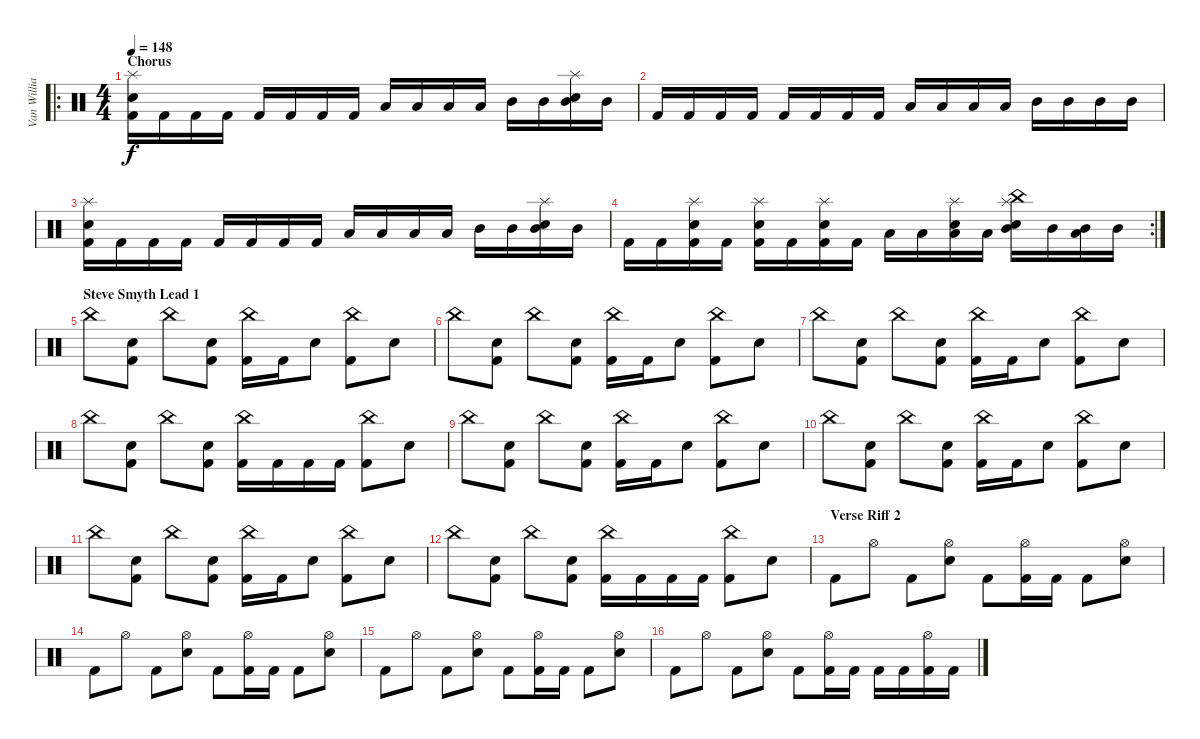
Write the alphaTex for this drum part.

\track ("Van Williams" "Van Willia") {instrument percussion}
\staff {score}
\articulation defaults
\ro
\ts (4 4)
\section ("" "Chorus")
\tempo 148
\clef neutral
\ks c
("Splash (hit)" "Electric Snare (hit)" "Kick (hit) 2").16{dy f} "Kick (hit) 2".16 "Kick (hit) 2".16 "Kick (hit) 2".16 "Kick (hit) 2".16 "Kick (hit) 2".16 "Kick (hit) 2".16 "Kick (hit) 2".16 "Low Tom (hit)".16 "Low Tom (hit)".16 "Low Tom (hit)".16 "Low Tom (hit)".16 "Mid Tom (hit)".16 "Mid Tom (hit)".16 ("Splash (hit)" "Electric Snare (hit)" "Mid Tom (hit)").16 "Mid Tom (hit)".16 |
"Kick (hit) 2".16 "Kick (hit) 2".16 "Kick (hit) 2".16 "Kick (hit) 2".16 "Kick (hit) 2".16 "Kick (hit) 2".16 "Kick (hit) 2".16 "Kick (hit) 2".16 "Low Tom (hit)".16 "Low Tom (hit)".16 "Low Tom (hit)".16 "Low Tom (hit)".16 "Mid Tom (hit)".16 "Mid Tom (hit)".16 "Mid Tom (hit)".16 "Mid Tom (hit)".16 |
("Splash (hit)" "Electric Snare (hit)" "Kick (hit) 2").16 "Kick (hit) 2".16 "Kick (hit) 2".16 "Kick (hit) 2".16 "Kick (hit) 2".16 "Kick (hit) 2".16 "Kick (hit) 2".16 "Kick (hit) 2".16 "Low Tom (hit)".16 "Low Tom (hit)".16 "Low Tom (hit)".16 "Low Tom (hit)".16 "Mid Tom (hit)".16 "Mid Tom (hit)".16 ("Splash (hit)" "Electric Snare (hit)" "Mid Tom (hit)").16 "Mid Tom (hit)".16 |
\rc 2 "Kick (hit) 2".16 "Kick (hit) 2".16
("Splash (hit)" "Electric Snare (hit)" "Kick (hit) 2").16 "Kick (hit) 2".16 ("Splash (hit)" "Electric Snare (hit)" "Kick (hit) 2").16 "Kick (hit) 2".16 ("Splash (hit)" "Electric Snare (hit)" "Kick (hit) 2").16 "Kick (hit) 2".16 "Low Tom (hit)".16 "Low Tom (hit)".16 ("Splash (hit)" "Electric Snare (hit)" "Low Tom (hit)").16 "Low Tom (hit)".16 ("Splash (hit)" "China (hit)" "Electric Snare (hit)" "Mid Tom (hit)").16 "Mid Tom (hit)".16 ("Low Tom (hit)" "Mid Tom (hit)").16 "Mid Tom (hit)".16 |
\section ("" "Steve Smyth Lead 1")
"China (hit)".8 ("Electric Snare (hit)" "Kick (hit) 2").8 "China (hit)".8 ("Electric Snare (hit)" "Kick (hit) 2").8 ("China (hit)" "Kick (hit) 2").16 "Kick (hit) 2".16 "Electric Snare (hit)".8 ("China (hit)" "Kick (hit) 2").8 "Electric Snare (hit)".8 |
"China (hit)".8 ("Electric Snare (hit)" "Kick (hit) 2").8 "China (hit)".8 ("Electric Snare (hit)" "Kick (hit) 2").8 ("China (hit)" "Kick (hit) 2").16 "Kick (hit) 2".16 "Electric Snare (hit)".8 ("China (hit)" "Kick (hit) 2").8 "Electric Snare (hit)".8 |
"China (hit)".8 ("Electric Snare (hit)" "Kick (hit) 2").8 "China (hit)".8 ("Electric Snare (hit)" "Kick (hit) 2").8 ("China (hit)" "Kick (hit) 2").16 "Kick (hit) 2".16 "Electric Snare (hit)".8 ("China (hit)" "Kick (hit) 2").8 "Electric Snare (hit)".8 |
"China (hit)".8 ("Electric Snare (hit)" "Kick (hit) 2").8 "China (hit)".8 ("Electric Snare (hit)" "Kick (hit) 2").8 ("China (hit)" "Kick (hit) 2").16 "Kick (hit) 2".16 "Kick (hit) 2".16 "Kick (hit) 2".16 ("China (hit)" "Kick (hit) 2").8 "Electric Snare (hit)".8 |
"China (hit)".8 ("Electric Snare (hit)" "Kick (hit) 2").8 "China (hit)".8 ("Electric Snare (hit)" "Kick (hit) 2").8 ("China (hit)" "Kick (hit) 2").16 "Kick (hit) 2".16 "Electric Snare (hit)".8 ("China (hit)" "Kick (hit) 2").8 "Electric Snare (hit)".8 |
"China (hit)".8 ("Electric Snare (hit)" "Kick (hit) 2").8 "China (hit)".8 ("Electric Snare (hit)" "Kick (hit) 2").8 ("China (hit)" "Kick (hit) 2").16 "Kick (hit) 2".16 "Electric Snare (hit)".8 ("China (hit)" "Kick (hit) 2").8 "Electric Snare (hit)".8 |
"China (hit)".8 ("Electric Snare (hit)" "Kick (hit) 2").8 "China (hit)".8 ("Electric Snare (hit)" "Kick (hit) 2").8 ("China (hit)" "Kick (hit) 2").16 "Kick (hit) 2".16 "Electric Snare (hit)".8 ("China (hit)" "Kick (hit) 2").8 "Electric Snare (hit)".8 |
"China (hit)".8 ("Electric Snare (hit)" "Kick (hit) 2").8 "China (hit)".8 ("Electric Snare (hit)" "Kick (hit) 2").8 ("China (hit)" "Kick (hit) 2").16 "Kick (hit) 2".16 "Kick (hit) 2".16 "Kick (hit) 2".16 ("China (hit)" "Kick (hit) 2").8 "Electric Snare (hit)".8 |
\section ("" "Verse Riff 2")
"Kick (hit) 2".8 "Hi-Hat (open)".8 "Kick (hit) 2".8 ("Hi-Hat (open)" "Electric Snare (hit)").8 "Kick (hit) 2".8 ("Hi-Hat (open)" "Kick (hit) 2").16 "Kick (hit) 2".16 "Kick (hit) 2".8 ("Hi-Hat (open)" "Electric Snare (hit)").8 |
"Kick (hit) 2".8 "Hi-Hat (open)".8 "Kick (hit) 2".8 ("Hi-Hat (open)" "Electric Snare (hit)").8 "Kick (hit) 2".8 ("Hi-Hat (open)" "Kick (hit) 2").16 "Kick (hit) 2".16 "Kick (hit) 2".8 ("Hi-Hat (open)" "Electric Snare (hit)").8 |
"Kick (hit) 2".8 "Hi-Hat (open)".8 "Kick (hit) 2".8 ("Hi-Hat (open)" "Electric Snare (hit)").8 "Kick (hit) 2".8 ("Hi-Hat (open)" "Kick (hit) 2").16 "Kick (hit) 2".16 "Kick (hit) 2".8 ("Hi-Hat (open)" "Electric Snare (hit)").8 |
"Kick (hit) 2".8 "Hi-Hat (open)".8 "Kick (hit) 2".8 ("Hi-Hat (open)" "Electric Snare (hit)").8 "Kick (hit) 2".8 ("Hi-Hat (open)" "Kick (hit) 2").16 "Kick (hit) 2".16 "Kick (hit) 2".16 "Kick (hit) 2".16 ("Hi-Hat (open)" "Kick (hit) 2").16 "Kick (hit) 2".16
